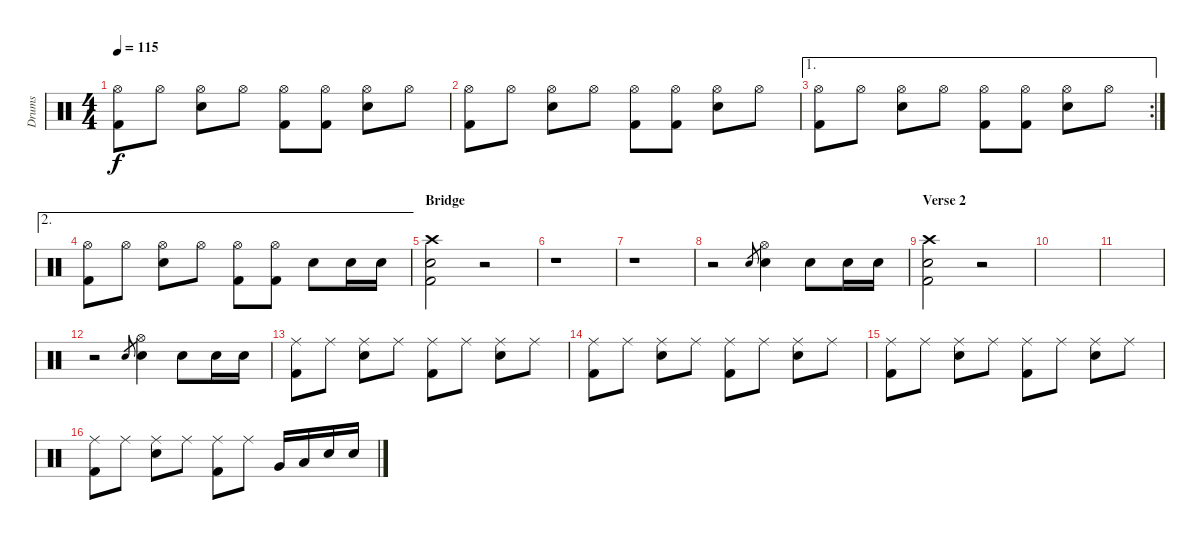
\track ("Drums" "Drums") {instrument percussion}
\staff {score}
\articulation defaults
\ts (4 4)
\tempo 115
\clef neutral
\ks c
("Hi-Hat (open)" "Kick (hit) 2").8{dy f} "Hi-Hat (open)".8 ("Hi-Hat (open)" "Electric Snare (hit)").8 "Hi-Hat (open)".8 ("Hi-Hat (open)" "Kick (hit) 2").8 ("Hi-Hat (open)" "Kick (hit) 2").8 ("Hi-Hat (open)" "Electric Snare (hit)").8 "Hi-Hat (open)".8 |
("Hi-Hat (open)" "Kick (hit) 2").8 "Hi-Hat (open)".8 ("Hi-Hat (open)" "Electric Snare (hit)").8 "Hi-Hat (open)".8 ("Hi-Hat (open)" "Kick (hit) 2").8 ("Hi-Hat (open)" "Kick (hit) 2").8 ("Hi-Hat (open)" "Electric Snare (hit)").8 "Hi-Hat (open)".8 |
\ae 1
\rc 2
("Hi-Hat (open)" "Kick (hit) 2").8 "Hi-Hat (open)".8 ("Hi-Hat (open)" "Electric Snare (hit)").8 "Hi-Hat (open)".8 ("Hi-Hat (open)" "Kick (hit) 2").8 ("Hi-Hat (open)" "Kick (hit) 2").8 ("Hi-Hat (open)" "Electric Snare (hit)").8 "Hi-Hat (open)".8 |
\ae 2
("Hi-Hat (open)" "Kick (hit) 2").8 "Hi-Hat (open)".8 ("Hi-Hat (open)" "Electric Snare (hit)").8 "Hi-Hat (open)".8 ("Hi-Hat (open)" "Kick (hit) 2").8 ("Hi-Hat (open)" "Kick (hit) 2").8 "Electric Snare (hit)".8 "Electric Snare (hit)".16 "Electric Snare (hit)".16 |
\section ("" "Bridge")
("Crash high (hit)" "Kick (hit) 2" "Electric Snare (hit)").2 r.2 |
r.1 |
r.1 |
r.2 "Electric Snare (hit)".8{gr} ("Hi-Hat (open)" "Electric Snare (hit)").4 "Electric Snare (hit)".8 "Electric Snare (hit)".16 "Electric Snare (hit)".16 |
\section ("" "Verse 2")
("Crash high (hit)" "Kick (hit) 2" "Electric Snare (hit)").2 r.2 |
|
|
r.2 "Electric Snare (hit)".8{gr} ("Hi-Hat (open)" "Electric Snare (hit)").4 "Electric Snare (hit)".8 "Electric Snare (hit)".16 "Electric Snare (hit)".16 |
("Ride (middle)" "Kick (hit) 2").8 "Ride (middle)".8 ("Ride (middle)" "Electric Snare (hit)").8 "Ride (middle)".8 ("Ride (middle)" "Kick (hit) 2").8 "Ride (middle)".8 ("Ride (middle)" "Electric Snare (hit)").8 "Ride (middle)".8 |
("Ride (middle)" "Kick (hit) 2").8 "Ride (middle)".8 ("Ride (middle)" "Electric Snare (hit)").8 "Ride (middle)".8 ("Ride (middle)" "Kick (hit) 2").8 "Ride (middle)".8 ("Ride (middle)" "Electric Snare (hit)").8 "Ride (middle)".8 |
("Ride (middle)" "Kick (hit) 2").8 "Ride (middle)".8 ("Ride (middle)" "Electric Snare (hit)").8 "Ride (middle)".8 ("Ride (middle)" "Kick (hit) 2").8 "Ride (middle)".8 ("Ride (middle)" "Electric Snare (hit)").8 "Ride (middle)".8 |
("Ride (middle)" "Kick (hit) 2").8 "Ride (middle)".8 ("Ride (middle)" "Electric Snare (hit)").8 "Ride (middle)".8 ("Ride (middle)" "Kick (hit) 2").8 "Ride (middle)".8 "Very Low Tom (hit)".16 "Low Floor Tom (hit)".16 "Electric Snare (hit)".16 "Electric Snare (hit)".16
